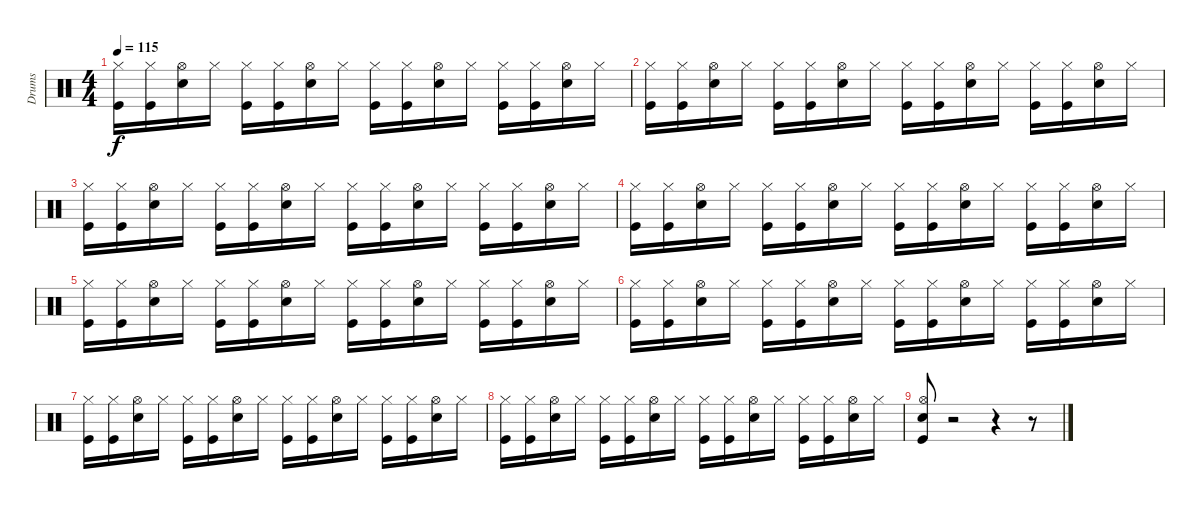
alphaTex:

\track ("Drums" "Drums") {instrument percussion}
\staff {score}
\articulation defaults
\ts (4 4)
\tempo 115
\clef neutral
\ks c
("Hi-Hat (closed)" "Kick (hit)").16{dy f} ("Hi-Hat (closed)" "Kick (hit)").16 ("Hi-Hat (open)" "Snare (hit) 2").16 "Hi-Hat (closed)".16 ("Hi-Hat (closed)" "Kick (hit)").16 ("Hi-Hat (closed)" "Kick (hit)").16 ("Hi-Hat (open)" "Snare (hit) 2").16 "Hi-Hat (closed)".16 ("Hi-Hat (closed)" "Kick (hit)").16 ("Hi-Hat (closed)" "Kick (hit)").16 ("Hi-Hat (open)" "Snare (hit) 2").16 "Hi-Hat (closed)".16 ("Hi-Hat (closed)" "Kick (hit)").16 ("Hi-Hat (closed)" "Kick (hit)").16 ("Hi-Hat (open)" "Snare (hit) 2").16 "Hi-Hat (closed)".16 |
("Hi-Hat (closed)" "Kick (hit)").16 ("Hi-Hat (closed)" "Kick (hit)").16 ("Hi-Hat (open)" "Snare (hit) 2").16 "Hi-Hat (closed)".16 ("Hi-Hat (closed)" "Kick (hit)").16 ("Hi-Hat (closed)" "Kick (hit)").16 ("Hi-Hat (open)" "Snare (hit) 2").16 "Hi-Hat (closed)".16 ("Hi-Hat (closed)" "Kick (hit)").16 ("Hi-Hat (closed)" "Kick (hit)").16 ("Hi-Hat (open)" "Snare (hit) 2").16 "Hi-Hat (closed)".16 ("Hi-Hat (closed)" "Kick (hit)").16 ("Hi-Hat (closed)" "Kick (hit)").16 ("Hi-Hat (open)" "Snare (hit) 2").16 "Hi-Hat (closed)".16 |
("Hi-Hat (closed)" "Kick (hit)").16 ("Hi-Hat (closed)" "Kick (hit)").16 ("Hi-Hat (open)" "Snare (hit) 2").16 "Hi-Hat (closed)".16 ("Hi-Hat (closed)" "Kick (hit)").16 ("Hi-Hat (closed)" "Kick (hit)").16 ("Hi-Hat (open)" "Snare (hit) 2").16 "Hi-Hat (closed)".16 ("Hi-Hat (closed)" "Kick (hit)").16 ("Hi-Hat (closed)" "Kick (hit)").16 ("Hi-Hat (open)" "Snare (hit) 2").16 "Hi-Hat (closed)".16 ("Hi-Hat (closed)" "Kick (hit)").16 ("Hi-Hat (closed)" "Kick (hit)").16 ("Hi-Hat (open)" "Snare (hit) 2").16 "Hi-Hat (closed)".16 |
("Hi-Hat (closed)" "Kick (hit)").16 ("Hi-Hat (closed)" "Kick (hit)").16 ("Hi-Hat (open)" "Snare (hit) 2").16 "Hi-Hat (closed)".16 ("Hi-Hat (closed)" "Kick (hit)").16 ("Hi-Hat (closed)" "Kick (hit)").16 ("Hi-Hat (open)" "Snare (hit) 2").16 "Hi-Hat (closed)".16 ("Hi-Hat (closed)" "Kick (hit)").16 ("Hi-Hat (closed)" "Kick (hit)").16 ("Hi-Hat (open)" "Snare (hit) 2").16 "Hi-Hat (closed)".16 ("Hi-Hat (closed)" "Kick (hit)").16 ("Hi-Hat (closed)" "Kick (hit)").16 ("Hi-Hat (open)" "Snare (hit) 2").16 "Hi-Hat (closed)".16 |
("Hi-Hat (closed)" "Kick (hit)").16 ("Hi-Hat (closed)" "Kick (hit)").16 ("Hi-Hat (open)" "Snare (hit) 2").16 "Hi-Hat (closed)".16 ("Hi-Hat (closed)" "Kick (hit)").16 ("Hi-Hat (closed)" "Kick (hit)").16 ("Hi-Hat (open)" "Snare (hit) 2").16 "Hi-Hat (closed)".16 ("Hi-Hat (closed)" "Kick (hit)").16 ("Hi-Hat (closed)" "Kick (hit)").16 ("Hi-Hat (open)" "Snare (hit) 2").16 "Hi-Hat (closed)".16 ("Hi-Hat (closed)" "Kick (hit)").16 ("Hi-Hat (closed)" "Kick (hit)").16 ("Hi-Hat (open)" "Snare (hit) 2").16 "Hi-Hat (closed)".16 |
("Hi-Hat (closed)" "Kick (hit)").16 ("Hi-Hat (closed)" "Kick (hit)").16 ("Hi-Hat (open)" "Snare (hit) 2").16 "Hi-Hat (closed)".16 ("Hi-Hat (closed)" "Kick (hit)").16 ("Hi-Hat (closed)" "Kick (hit)").16 ("Hi-Hat (open)" "Snare (hit) 2").16 "Hi-Hat (closed)".16 ("Hi-Hat (closed)" "Kick (hit)").16 ("Hi-Hat (closed)" "Kick (hit)").16 ("Hi-Hat (open)" "Snare (hit) 2").16 "Hi-Hat (closed)".16 ("Hi-Hat (closed)" "Kick (hit)").16 ("Hi-Hat (closed)" "Kick (hit)").16 ("Hi-Hat (open)" "Snare (hit) 2").16 "Hi-Hat (closed)".16 |
("Hi-Hat (closed)" "Kick (hit)").16 ("Hi-Hat (closed)" "Kick (hit)").16 ("Hi-Hat (open)" "Snare (hit) 2").16 "Hi-Hat (closed)".16 ("Hi-Hat (closed)" "Kick (hit)").16 ("Hi-Hat (closed)" "Kick (hit)").16 ("Hi-Hat (open)" "Snare (hit) 2").16 "Hi-Hat (closed)".16 ("Hi-Hat (closed)" "Kick (hit)").16 ("Hi-Hat (closed)" "Kick (hit)").16 ("Hi-Hat (open)" "Snare (hit) 2").16 "Hi-Hat (closed)".16 ("Hi-Hat (closed)" "Kick (hit)").16 ("Hi-Hat (closed)" "Kick (hit)").16 ("Hi-Hat (open)" "Snare (hit) 2").16 "Hi-Hat (closed)".16 |
("Hi-Hat (closed)" "Kick (hit)").16 ("Hi-Hat (closed)" "Kick (hit)").16 ("Hi-Hat (open)" "Snare (hit) 2").16 "Hi-Hat (closed)".16 ("Hi-Hat (closed)" "Kick (hit)").16 ("Hi-Hat (closed)" "Kick (hit)").16 ("Hi-Hat (open)" "Snare (hit) 2").16 "Hi-Hat (closed)".16 ("Hi-Hat (closed)" "Kick (hit)").16 ("Hi-Hat (closed)" "Kick (hit)").16 ("Hi-Hat (open)" "Snare (hit) 2").16 "Hi-Hat (closed)".16 ("Hi-Hat (closed)" "Kick (hit)").16 ("Hi-Hat (closed)" "Kick (hit)").16 ("Hi-Hat (open)" "Snare (hit) 2").16 "Hi-Hat (closed)".16 |
("Hi-Hat (open)" "Snare (hit) 2" "Kick (hit)").8 r.2 r.4 r.8
